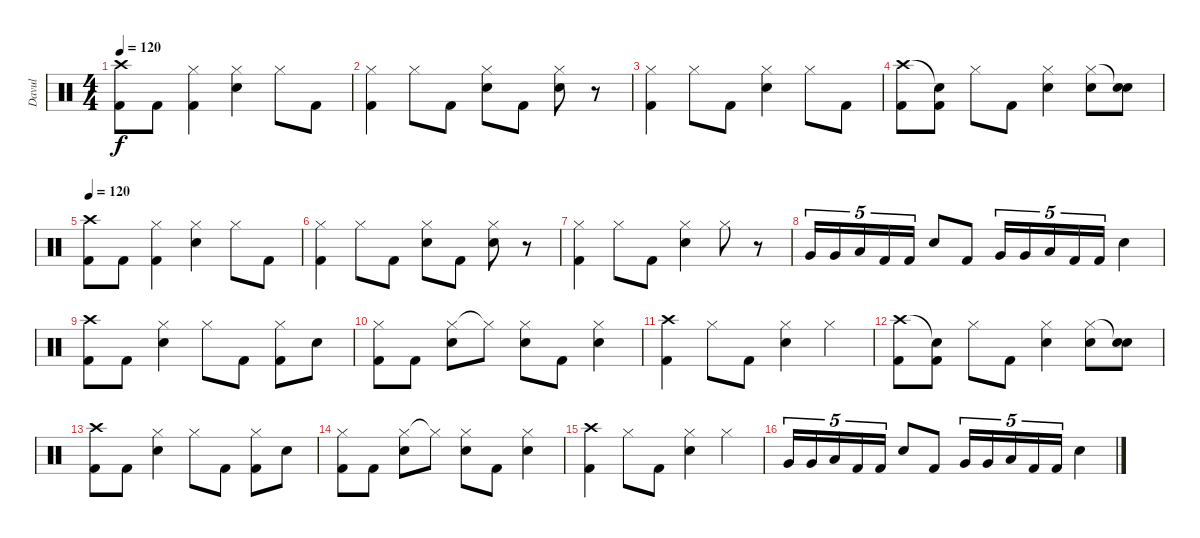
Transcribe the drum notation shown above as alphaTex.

\track ("Davul" "Davul") {instrument percussion}
\staff {score}
\articulation defaults
\ts (4 4)
\tempo 120
\clef neutral
\ks c
("Crash high (hit)" "Kick (hit) 2").8{dy f} "Kick (hit) 2".8 ("Hi-Hat (closed)" "Kick (hit) 2").4 ("Hi-Hat (closed)" "Electric Snare (hit)").4 "Hi-Hat (closed)".8 "Kick (hit) 2".8 |
("Hi-Hat (closed)" "Kick (hit) 2").4 "Hi-Hat (closed)".8 "Kick (hit) 2".8 ("Hi-Hat (closed)" "Electric Snare (hit)").8 "Kick (hit) 2".8 ("Hi-Hat (closed)" "Electric Snare (hit)").8 r.8 |
("Hi-Hat (closed)" "Kick (hit) 2").4 "Hi-Hat (closed)".8 "Kick (hit) 2".8 ("Hi-Hat (closed)" "Electric Snare (hit)").4 "Hi-Hat (closed)".8 "Kick (hit) 2".8 |
("Crash high (hit)" "Kick (hit) 2").8 ("Snare (hit)"{t} "Kick (hit) 2").8 "Hi-Hat (closed)".8 "Kick (hit) 2".8 ("Hi-Hat (closed)" "Electric Snare (hit)").4 ("Hi-Hat (closed)" "Electric Snare (hit)").8 ("Snare (hit)"{t} "Electric Snare (hit)").8 |
\tempo 120
("Crash high (hit)" "Kick (hit) 2").8 "Kick (hit) 2".8 ("Hi-Hat (closed)" "Kick (hit) 2").4 ("Hi-Hat (closed)" "Electric Snare (hit)").4 "Hi-Hat (closed)".8 "Kick (hit) 2".8 |
("Hi-Hat (closed)" "Kick (hit) 2").4 "Hi-Hat (closed)".8 "Kick (hit) 2".8 ("Hi-Hat (closed)" "Electric Snare (hit)").8 "Kick (hit) 2".8 ("Hi-Hat (closed)" "Electric Snare (hit)").8 r.8 |
("Hi-Hat (closed)" "Kick (hit) 2").4 "Hi-Hat (closed)".8 "Kick (hit) 2".8 ("Hi-Hat (closed)" "Electric Snare (hit)").4 "Hi-Hat (closed)".8 r.8 |
"Very Low Tom (hit)".16{tu (5 4)} "Very Low Tom (hit)".16{tu (5 4)} "Low Tom (hit)".16{tu (5 4)} "Kick (hit) 2".16{tu (5 4)} "Kick (hit) 2".16{tu (5 4)} "Electric Snare (hit)".8 "Kick (hit) 2".8 "Very Low Tom (hit)".16{tu (5 4)} "Very Low Tom (hit)".16{tu (5 4)} "Low Tom (hit)".16{tu (5 4)} "Kick (hit) 2".16{tu (5 4)} "Kick (hit) 2".16{tu (5 4)} "Electric Snare (hit)".4 |
("Crash high (hit)" "Kick (hit) 2").8 "Kick (hit) 2".8 ("Hi-Hat (closed)" "Electric Snare (hit)").4 "Hi-Hat (closed)".8 "Kick (hit) 2".8 ("Hi-Hat (closed)" "Kick (hit) 2").8 "Electric Snare (hit)".8 |
("Hi-Hat (closed)" "Kick (hit) 2").8 "Kick (hit) 2".8 ("Hi-Hat (closed)" "Electric Snare (hit)").8 "Hi-Hat (closed)"{t}.8 ("Hi-Hat (closed)" "Electric Snare (hit)").8 "Kick (hit) 2".8 ("Hi-Hat (closed)" "Electric Snare (hit)").4 |
("Crash high (hit)" "Kick (hit) 2").4 "Hi-Hat (closed)".8 "Kick (hit) 2".8 ("Hi-Hat (closed)" "Electric Snare (hit)").4 "Hi-Hat (closed)".4 |
("Crash high (hit)" "Kick (hit) 2").8 ("Snare (hit)"{t} "Kick (hit) 2").8 "Hi-Hat (closed)".8 "Kick (hit) 2".8 ("Hi-Hat (closed)" "Electric Snare (hit)").4 ("Hi-Hat (closed)" "Electric Snare (hit)").8 ("Snare (hit)"{t} "Electric Snare (hit)").8 |
("Crash high (hit)" "Kick (hit) 2").8 "Kick (hit) 2".8 ("Hi-Hat (closed)" "Electric Snare (hit)").4 "Hi-Hat (closed)".8 "Kick (hit) 2".8 ("Hi-Hat (closed)" "Kick (hit) 2").8 "Electric Snare (hit)".8 |
("Hi-Hat (closed)" "Kick (hit) 2").8 "Kick (hit) 2".8 ("Hi-Hat (closed)" "Electric Snare (hit)").8 "Hi-Hat (closed)"{t}.8 ("Hi-Hat (closed)" "Electric Snare (hit)").8 "Kick (hit) 2".8 ("Hi-Hat (closed)" "Electric Snare (hit)").4 |
("Crash high (hit)" "Kick (hit) 2").4 "Hi-Hat (closed)".8 "Kick (hit) 2".8 ("Hi-Hat (closed)" "Electric Snare (hit)").4 "Hi-Hat (closed)".4 |
"Very Low Tom (hit)".16{tu (5 4)} "Very Low Tom (hit)".16{tu (5 4)} "Low Tom (hit)".16{tu (5 4)} "Kick (hit) 2".16{tu (5 4)} "Kick (hit) 2".16{tu (5 4)} "Electric Snare (hit)".8 "Kick (hit) 2".8 "Very Low Tom (hit)".16{tu (5 4)} "Very Low Tom (hit)".16{tu (5 4)} "Low Tom (hit)".16{tu (5 4)} "Kick (hit) 2".16{tu (5 4)} "Kick (hit) 2".16{tu (5 4)} "Electric Snare (hit)".4
